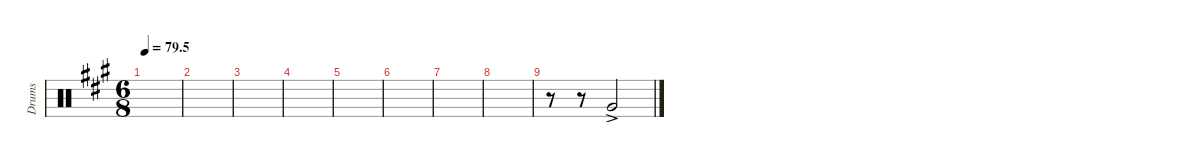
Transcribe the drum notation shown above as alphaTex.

\defaultSystemsLayout 4
\hideDynamics
\bracketExtendMode nobrackets
\otherSystemsTrackNameOrientation horizontal
\track ("Tom 04" "Drums") {instrument percussion}
\staff {score}
\articulation defaults
\ts (6 8)
\tempo
79.5
\accidentals auto
\clef neutral
\ottava regular
\simile none
\scale
0.333333
\ks a
|
\scale
0.333333 |
\scale
0.333333 |
\scale
0.333333 |
\scale
0.333333 |
\scale
0.333333 |
\scale
0.333333 |
\scale
0.333333 |
\scale
0.333333 r.8 r.8 "Very Low Tom (hit)"{ac acc forcenatural}.2 |
\scale
0.333333 |
\scale
0.333333 |
\scale
0.333333
